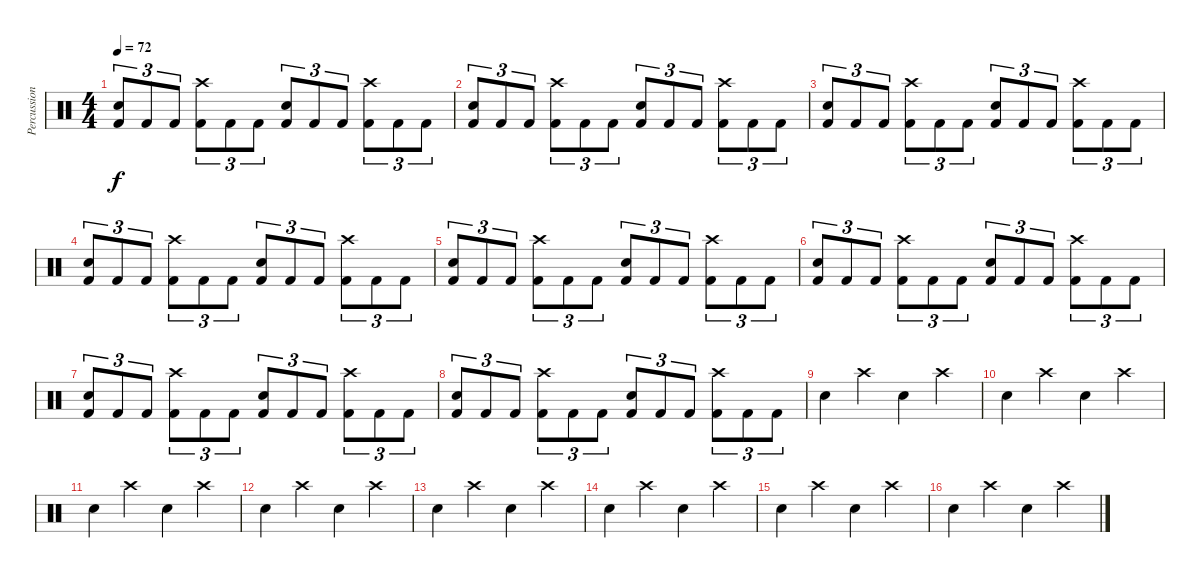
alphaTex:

\track ("Percussion" "Percussion") {instrument percussion}
\staff {score}
\articulation defaults
\ts (4 4)
\tempo 72
\clef neutral
\ks c
("Snare (hit) 2" "Kick (hit) 2").8{tu (3 2) dy f} "Kick (hit) 2".8{tu (3 2)} "Kick (hit) 2".8{tu (3 2)} ("Crash high (hit)" "Kick (hit) 2").8{tu (3 2)} "Kick (hit) 2".8{tu (3 2)} "Kick (hit) 2".8{tu (3 2)} ("Snare (hit) 2" "Kick (hit) 2").8{tu (3 2)} "Kick (hit) 2".8{tu (3 2)} "Kick (hit) 2".8{tu (3 2)} ("Crash high (hit)" "Kick (hit) 2").8{tu (3 2)} "Kick (hit) 2".8{tu (3 2)} "Kick (hit) 2".8{tu (3 2)} |
("Snare (hit) 2" "Kick (hit) 2").8{tu (3 2)} "Kick (hit) 2".8{tu (3 2)} "Kick (hit) 2".8{tu (3 2)} ("Crash high (hit)" "Kick (hit) 2").8{tu (3 2)} "Kick (hit) 2".8{tu (3 2)} "Kick (hit) 2".8{tu (3 2)} ("Snare (hit) 2" "Kick (hit) 2").8{tu (3 2)} "Kick (hit) 2".8{tu (3 2)} "Kick (hit) 2".8{tu (3 2)} ("Crash high (hit)" "Kick (hit) 2").8{tu (3 2)} "Kick (hit) 2".8{tu (3 2)} "Kick (hit) 2".8{tu (3 2)} |
("Snare (hit) 2" "Kick (hit) 2").8{tu (3 2)} "Kick (hit) 2".8{tu (3 2)} "Kick (hit) 2".8{tu (3 2)} ("Crash high (hit)" "Kick (hit) 2").8{tu (3 2)} "Kick (hit) 2".8{tu (3 2)} "Kick (hit) 2".8{tu (3 2)} ("Snare (hit) 2" "Kick (hit) 2").8{tu (3 2)} "Kick (hit) 2".8{tu (3 2)} "Kick (hit) 2".8{tu (3 2)} ("Crash high (hit)" "Kick (hit) 2").8{tu (3 2)} "Kick (hit) 2".8{tu (3 2)} "Kick (hit) 2".8{tu (3 2)} |
("Snare (hit) 2" "Kick (hit) 2").8{tu (3 2)} "Kick (hit) 2".8{tu (3 2)} "Kick (hit) 2".8{tu (3 2)} ("Crash high (hit)" "Kick (hit) 2").8{tu (3 2)} "Kick (hit) 2".8{tu (3 2)} "Kick (hit) 2".8{tu (3 2)} ("Snare (hit) 2" "Kick (hit) 2").8{tu (3 2)} "Kick (hit) 2".8{tu (3 2)} "Kick (hit) 2".8{tu (3 2)} ("Crash high (hit)" "Kick (hit) 2").8{tu (3 2)} "Kick (hit) 2".8{tu (3 2)} "Kick (hit) 2".8{tu (3 2)} |
("Snare (hit) 2" "Kick (hit) 2").8{tu (3 2)} "Kick (hit) 2".8{tu (3 2)} "Kick (hit) 2".8{tu (3 2)} ("Crash high (hit)" "Kick (hit) 2").8{tu (3 2)} "Kick (hit) 2".8{tu (3 2)} "Kick (hit) 2".8{tu (3 2)} ("Snare (hit) 2" "Kick (hit) 2").8{tu (3 2)} "Kick (hit) 2".8{tu (3 2)} "Kick (hit) 2".8{tu (3 2)} ("Crash high (hit)" "Kick (hit) 2").8{tu (3 2)} "Kick (hit) 2".8{tu (3 2)} "Kick (hit) 2".8{tu (3 2)} |
("Snare (hit) 2" "Kick (hit) 2").8{tu (3 2)} "Kick (hit) 2".8{tu (3 2)} "Kick (hit) 2".8{tu (3 2)} ("Crash high (hit)" "Kick (hit) 2").8{tu (3 2)} "Kick (hit) 2".8{tu (3 2)} "Kick (hit) 2".8{tu (3 2)} ("Snare (hit) 2" "Kick (hit) 2").8{tu (3 2)} "Kick (hit) 2".8{tu (3 2)} "Kick (hit) 2".8{tu (3 2)} ("Crash high (hit)" "Kick (hit) 2").8{tu (3 2)} "Kick (hit) 2".8{tu (3 2)} "Kick (hit) 2".8{tu (3 2)} |
("Snare (hit) 2" "Kick (hit) 2").8{tu (3 2)} "Kick (hit) 2".8{tu (3 2)} "Kick (hit) 2".8{tu (3 2)} ("Crash high (hit)" "Kick (hit) 2").8{tu (3 2)} "Kick (hit) 2".8{tu (3 2)} "Kick (hit) 2".8{tu (3 2)} ("Snare (hit) 2" "Kick (hit) 2").8{tu (3 2)} "Kick (hit) 2".8{tu (3 2)} "Kick (hit) 2".8{tu (3 2)} ("Crash high (hit)" "Kick (hit) 2").8{tu (3 2)} "Kick (hit) 2".8{tu (3 2)} "Kick (hit) 2".8{tu (3 2)} |
("Snare (hit) 2" "Kick (hit) 2").8{tu (3 2)} "Kick (hit) 2".8{tu (3 2)} "Kick (hit) 2".8{tu (3 2)} ("Crash high (hit)" "Kick (hit) 2").8{tu (3 2)} "Kick (hit) 2".8{tu (3 2)} "Kick (hit) 2".8{tu (3 2)} ("Snare (hit) 2" "Kick (hit) 2").8{tu (3 2)} "Kick (hit) 2".8{tu (3 2)} "Kick (hit) 2".8{tu (3 2)} ("Crash high (hit)" "Kick (hit) 2").8{tu (3 2)} "Kick (hit) 2".8{tu (3 2)} "Kick (hit) 2".8{tu (3 2)} |
"Snare (hit) 2".4 "Crash high (hit)".4 "Snare (hit) 2".4 "Crash high (hit)".4 |
"Snare (hit) 2".4 "Crash high (hit)".4 "Snare (hit) 2".4 "Crash high (hit)".4 |
"Snare (hit) 2".4 "Crash high (hit)".4 "Snare (hit) 2".4 "Crash high (hit)".4 |
"Snare (hit) 2".4 "Crash high (hit)".4 "Snare (hit) 2".4 "Crash high (hit)".4 |
"Snare (hit) 2".4 "Crash high (hit)".4 "Snare (hit) 2".4 "Crash high (hit)".4 |
"Snare (hit) 2".4 "Crash high (hit)".4 "Snare (hit) 2".4 "Crash high (hit)".4 |
"Snare (hit) 2".4 "Crash high (hit)".4 "Snare (hit) 2".4 "Crash high (hit)".4 |
"Snare (hit) 2".4 "Crash high (hit)".4 "Snare (hit) 2".4 "Crash high (hit)".4
